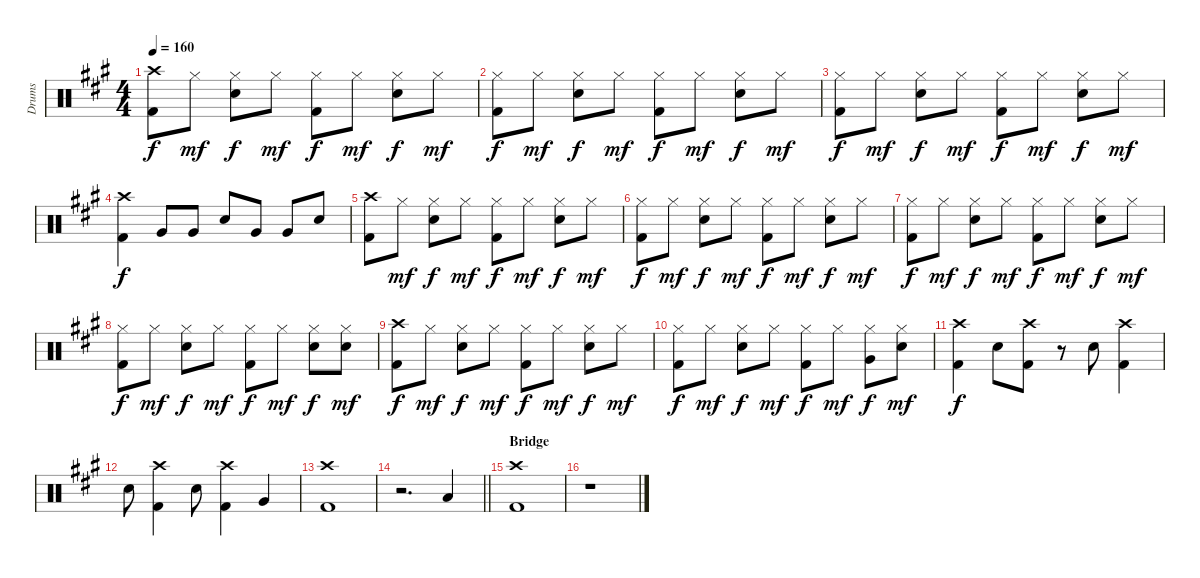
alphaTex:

\track ("Drums" "Drums") {instrument percussion}
\staff {score}
\articulation defaults
\ts (4 4)
\tempo 160
\clef neutral
\ks a
("Crash high (hit)" "Kick (hit) 2").8{dy f} "Hi-Hat (closed)".8{dy mf} ("Hi-Hat (closed)" "Electric Snare (hit)").8{dy f} "Hi-Hat (closed)".8{dy mf} ("Hi-Hat (closed)" "Kick (hit) 2").8{dy f} "Hi-Hat (closed)".8{dy mf} ("Hi-Hat (closed)" "Electric Snare (hit)").8{dy f} "Hi-Hat (closed)".8{dy mf} |
("Hi-Hat (closed)" "Kick (hit) 2").8{dy f} "Hi-Hat (closed)".8{dy mf} ("Hi-Hat (closed)" "Electric Snare (hit)").8{dy f} "Hi-Hat (closed)".8{dy mf} ("Hi-Hat (closed)" "Kick (hit) 2").8{dy f} "Hi-Hat (closed)".8{dy mf} ("Hi-Hat (closed)" "Electric Snare (hit)").8{dy f} "Hi-Hat (closed)".8{dy mf} |
("Hi-Hat (closed)" "Kick (hit) 2").8{dy f} "Hi-Hat (closed)".8{dy mf} ("Hi-Hat (closed)" "Electric Snare (hit)").8{dy f} "Hi-Hat (closed)".8{dy mf} ("Hi-Hat (closed)" "Kick (hit) 2").8{dy f} "Hi-Hat (closed)".8{dy mf} ("Hi-Hat (closed)" "Electric Snare (hit)").8{dy f} "Hi-Hat (closed)".8{dy mf} |
("Crash high (hit)" "Kick (hit) 2").4{dy f} "Very Low Tom (hit)".8 "Very Low Tom (hit)".8 "Electric Snare (hit)".8 "Very Low Tom (hit)".8 "Very Low Tom (hit)".8 "Electric Snare (hit)".8 |
("Crash high (hit)" "Kick (hit) 2").8 "Hi-Hat (closed)".8{dy mf} ("Hi-Hat (closed)" "Electric Snare (hit)").8{dy f} "Hi-Hat (closed)".8{dy mf} ("Hi-Hat (closed)" "Kick (hit) 2").8{dy f} "Hi-Hat (closed)".8{dy mf} ("Hi-Hat (closed)" "Electric Snare (hit)").8{dy f} "Hi-Hat (closed)".8{dy mf} |
("Hi-Hat (closed)" "Kick (hit) 2").8{dy f} "Hi-Hat (closed)".8{dy mf} ("Hi-Hat (closed)" "Electric Snare (hit)").8{dy f} "Hi-Hat (closed)".8{dy mf} ("Hi-Hat (closed)" "Kick (hit) 2").8{dy f} "Hi-Hat (closed)".8{dy mf} ("Hi-Hat (closed)" "Electric Snare (hit)").8{dy f} "Hi-Hat (closed)".8{dy mf} |
("Hi-Hat (closed)" "Kick (hit) 2").8{dy f} "Hi-Hat (closed)".8{dy mf} ("Hi-Hat (closed)" "Electric Snare (hit)").8{dy f} "Hi-Hat (closed)".8{dy mf} ("Hi-Hat (closed)" "Kick (hit) 2").8{dy f} "Hi-Hat (closed)".8{dy mf} ("Hi-Hat (closed)" "Electric Snare (hit)").8{dy f} "Hi-Hat (closed)".8{dy mf} |
("Hi-Hat (closed)" "Kick (hit) 2").8{dy f} "Hi-Hat (closed)".8{dy mf} ("Hi-Hat (closed)" "Electric Snare (hit)").8{dy f} "Hi-Hat (closed)".8{dy mf} ("Hi-Hat (closed)" "Kick (hit) 2").8{dy f} "Hi-Hat (closed)".8{dy mf} ("Hi-Hat (closed)" "Electric Snare (hit)").8{dy f} ("Hi-Hat (closed)" "Electric Snare (hit)").8{dy mf} |
("Crash high (hit)" "Kick (hit) 2").8{dy f} "Hi-Hat (closed)".8{dy mf} ("Hi-Hat (closed)" "Electric Snare (hit)").8{dy f} "Hi-Hat (closed)".8{dy mf} ("Hi-Hat (closed)" "Kick (hit) 2").8{dy f} "Hi-Hat (closed)".8{dy mf} ("Hi-Hat (closed)" "Electric Snare (hit)").8{dy f} "Hi-Hat (closed)".8{dy mf} |
("Hi-Hat (closed)" "Kick (hit) 2").8{dy f} "Hi-Hat (closed)".8{dy mf} ("Hi-Hat (closed)" "Electric Snare (hit)").8{dy f} "Hi-Hat (closed)".8{dy mf} ("Hi-Hat (closed)" "Kick (hit) 2").8{dy f} "Hi-Hat (closed)".8{dy mf} ("Hi-Hat (closed)" "Very Low Tom (hit)").8{dy f} ("Hi-Hat (closed)" "Electric Snare (hit)").8{dy mf} |
("Crash high (hit)" "Kick (hit) 2").4{dy f} "Electric Snare (hit)".8 ("Crash high (hit)" "Kick (hit) 2").8 r.8 "Electric Snare (hit)".8 ("Crash high (hit)" "Kick (hit) 2").4 |
"Electric Snare (hit)".8 ("Crash high (hit)" "Kick (hit) 2").4 "Electric Snare (hit)".8 ("Crash high (hit)" "Kick (hit) 2").4 "Very Low Tom (hit)".4 |
("Crash high (hit)" "Kick (hit) 2").1 |
\barLineRight lightlight
r.2{d} "Low Tom (hit)".4 |
\section ("" "Bridge")
("Crash high (hit)" "Kick (hit) 2").1 |
r.1
